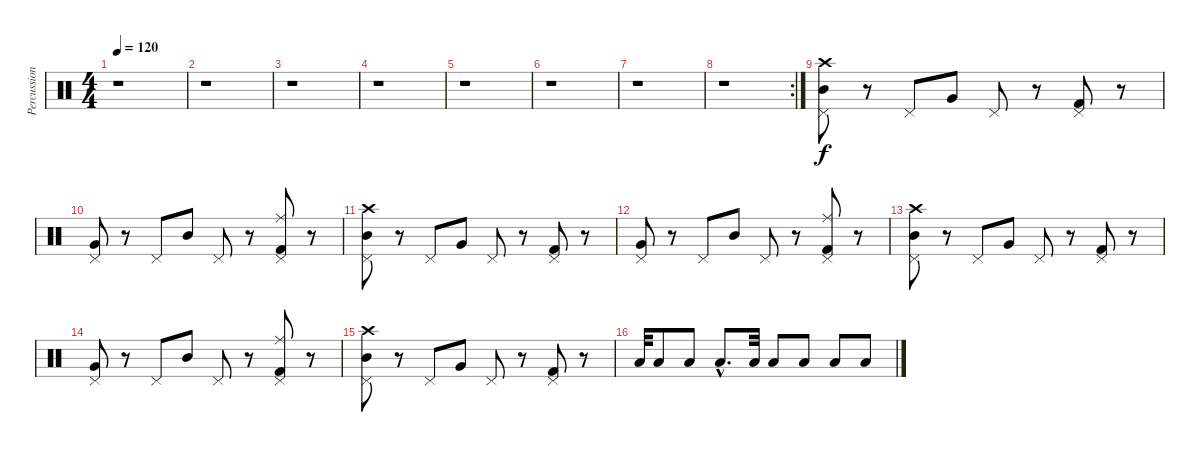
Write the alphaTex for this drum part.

\track ("Percussion" "Percussion") {instrument percussion}
\staff {score}
\articulation defaults
\ts (4 4)
\tempo 120
\clef neutral
\ks c
r.1{dy f} |
r.1 |
r.1 |
r.1 |
r.1 |
r.1 |
r.1 |
\rc 2
r.1 |
("Crash high (hit)" "Mid Tom (hit)" "Pedal Hi-Hat (hit)").8 r.8 "Pedal Hi-Hat (hit)".8 "Very Low Tom (hit)".8 "Pedal Hi-Hat (hit)".8 r.8 ("Kick (hit) 2" "Pedal Hi-Hat (hit)").8 r.8 |
("Very Low Tom (hit)" "Pedal Hi-Hat (hit)").8 r.8 "Pedal Hi-Hat (hit)".8 "Mid Tom (hit)".8 "Pedal Hi-Hat (hit)".8 r.8 ("Ride (middle)" "Kick (hit) 2" "Pedal Hi-Hat (hit)").8 r.8 |
("Crash high (hit)" "Mid Tom (hit)" "Pedal Hi-Hat (hit)").8 r.8 "Pedal Hi-Hat (hit)".8 "Very Low Tom (hit)".8 "Pedal Hi-Hat (hit)".8 r.8 ("Kick (hit) 2" "Pedal Hi-Hat (hit)").8 r.8 |
("Very Low Tom (hit)" "Pedal Hi-Hat (hit)").8 r.8 "Pedal Hi-Hat (hit)".8 "Mid Tom (hit)".8 "Pedal Hi-Hat (hit)".8 r.8 ("Ride (middle)" "Kick (hit) 2" "Pedal Hi-Hat (hit)").8 r.8 |
("Crash high (hit)" "Mid Tom (hit)" "Pedal Hi-Hat (hit)").8 r.8 "Pedal Hi-Hat (hit)".8 "Very Low Tom (hit)".8 "Pedal Hi-Hat (hit)".8 r.8 ("Kick (hit) 2" "Pedal Hi-Hat (hit)").8 r.8 |
("Very Low Tom (hit)" "Pedal Hi-Hat (hit)").8 r.8 "Pedal Hi-Hat (hit)".8 "Mid Tom (hit)".8 "Pedal Hi-Hat (hit)".8 r.8 ("Ride (middle)" "Kick (hit) 2" "Pedal Hi-Hat (hit)").8 r.8 |
("Crash high (hit)" "Mid Tom (hit)" "Pedal Hi-Hat (hit)").8 r.8 "Pedal Hi-Hat (hit)".8 "Very Low Tom (hit)".8 "Pedal Hi-Hat (hit)".8 r.8 ("Kick (hit) 2" "Pedal Hi-Hat (hit)").8 r.8 |
"Low Tom (hit)".32 "Low Tom (hit)".8 "Low Tom (hit)".8 "Low Tom (hit)"{hac}.8{d} "Low Tom (hit)".32 "Low Tom (hit)".8 "Low Tom (hit)".8 "Low Tom (hit)".8 "Low Tom (hit)".8
